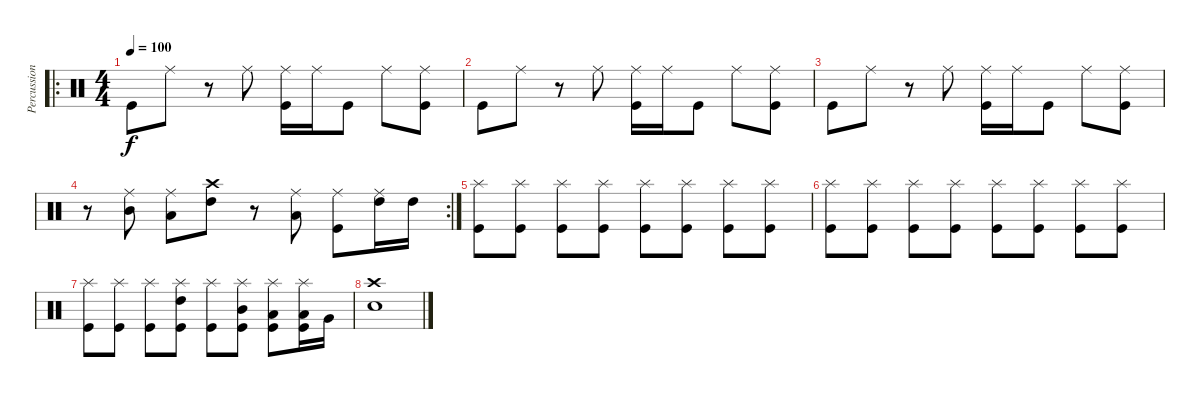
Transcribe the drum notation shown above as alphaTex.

\track ("Percussions" "Percussion") {instrument percussion}
\staff {score}
\articulation defaults
\ro
\ts (4 4)
\tempo 100
\clef neutral
\ks c "Kick (hit)".8{dy f} "Ride (middle)".8
r.8 "Ride (middle)".8 ("Ride (middle)" "Kick (hit)").16 "Ride (middle)".16 "Kick (hit)".8 "Ride (middle)".8 ("Ride (middle)" "Kick (hit)").8 |
"Kick (hit)".8 "Ride (middle)".8 r.8 "Ride (middle)".8 ("Ride (middle)" "Kick (hit)").16 "Ride (middle)".16 "Kick (hit)".8 "Ride (middle)".8 ("Ride (middle)" "Kick (hit)").8 |
"Kick (hit)".8 "Ride (middle)".8 r.8 "Ride (middle)".8 ("Ride (middle)" "Kick (hit)").16 "Ride (middle)".16 "Kick (hit)".8 "Ride (middle)".8 ("Ride (middle)" "Kick (hit)").8 |
\rc 2
r.8 ("Ride (middle)" "Mid Tom (hit)").8 ("Ride (middle)" "Low Tom (hit)").8 ("Crash high (hit)" "High Tom (hit)").8 r.8 ("Ride (middle)" "Low Tom (hit)").8 ("Ride (middle)" "Kick (hit)").8 ("Ride (middle)" "High Tom (hit)").16 "High Tom (hit)".16 |
("Splash (hit)" "Kick (hit)").8 ("Splash (hit)" "Kick (hit)").8 ("Splash (hit)" "Kick (hit)").8 ("Splash (hit)" "Kick (hit)").8 ("Splash (hit)" "Kick (hit)").8 ("Splash (hit)" "Kick (hit)").8 ("Splash (hit)" "Kick (hit)").8 ("Splash (hit)" "Kick (hit)").8 |
("Splash (hit)" "Kick (hit)").8 ("Splash (hit)" "Kick (hit)").8 ("Splash (hit)" "Kick (hit)").8 ("Splash (hit)" "Kick (hit)").8 ("Splash (hit)" "Kick (hit)").8 ("Splash (hit)" "Kick (hit)").8 ("Splash (hit)" "Kick (hit)").8 ("Splash (hit)" "Kick (hit)").8 |
("Splash (hit)" "Kick (hit)").8 ("Splash (hit)" "Kick (hit)").8 ("Splash (hit)" "Kick (hit)").8 ("Splash (hit)" "High Tom (hit)" "Kick (hit)").8 ("Splash (hit)" "Kick (hit)").8 ("Splash (hit)" "Mid Tom (hit)" "Kick (hit)").8 ("Splash (hit)" "Low Tom (hit)" "Kick (hit)").8 ("Splash (hit)" "Low Tom (hit)" "Kick (hit)").16 "Very Low Tom (hit)".16 |
("Crash high (hit)" "Snare (hit) 2").1
